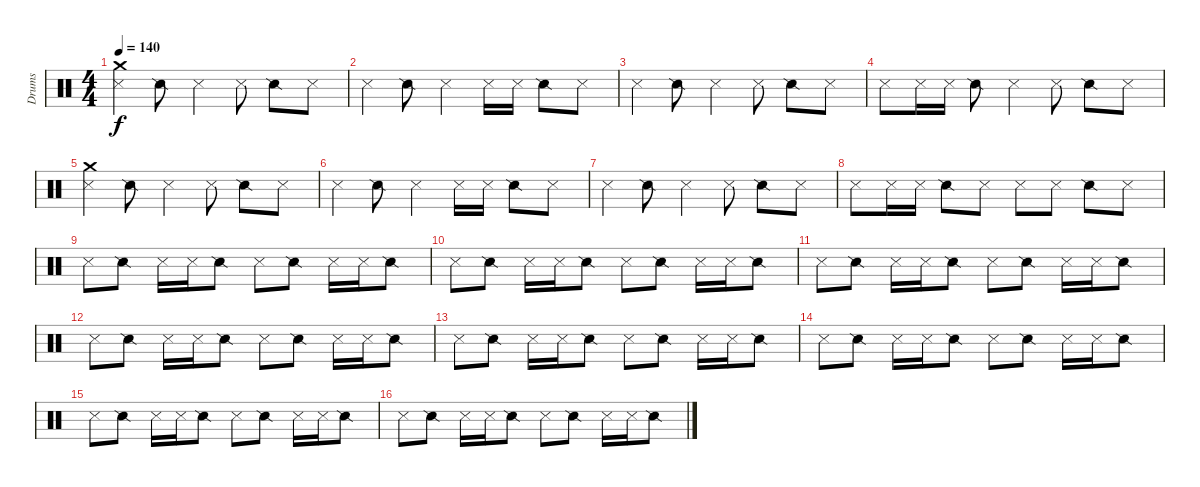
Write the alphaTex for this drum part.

\track ("Drums" "Drums") {instrument percussion}
\staff {score}
\articulation defaults
\ts (4 4)
\tempo 140
\clef neutral
\ks c
("Crash medium (hit)" "Metronome (hit)").4{dy f} "Snare (side stick) 2".8 "Metronome (hit)".4 "Metronome (hit)".8 "Snare (side stick) 2".8 "Metronome (hit)".8 |
"Metronome (hit)".4 "Snare (side stick) 2".8 "Metronome (hit)".4 "Metronome (hit)".16 "Metronome (hit)".16 "Snare (side stick) 2".8 "Metronome (hit)".8 |
"Metronome (hit)".4 "Snare (side stick) 2".8 "Metronome (hit)".4 "Metronome (hit)".8 "Snare (side stick) 2".8 "Metronome (hit)".8 |
"Metronome (hit)".8 "Metronome (hit)".16 "Metronome (hit)".16 "Snare (side stick) 2".8 "Metronome (hit)".4 "Metronome (hit)".8 "Snare (side stick) 2".8 "Metronome (hit)".8 |
("Crash medium (hit)" "Metronome (hit)").4 "Snare (side stick) 2".8 "Metronome (hit)".4 "Metronome (hit)".8 "Snare (side stick) 2".8 "Metronome (hit)".8 |
"Metronome (hit)".4 "Snare (side stick) 2".8 "Metronome (hit)".4 "Metronome (hit)".16 "Metronome (hit)".16 "Snare (side stick) 2".8 "Metronome (hit)".8 |
"Metronome (hit)".4 "Snare (side stick) 2".8 "Metronome (hit)".4 "Metronome (hit)".8 "Snare (side stick) 2".8 "Metronome (hit)".8 |
"Metronome (hit)".8 "Metronome (hit)".16 "Metronome (hit)".16 "Snare (side stick) 2".8 "Metronome (hit)".8 "Metronome (hit)".8 "Metronome (hit)".8 "Snare (side stick) 2".8 "Metronome (hit)".8 |
"Metronome (hit)".8 "Snare (side stick) 2".8 "Metronome (hit)".16 "Metronome (hit)".16 "Snare (side stick) 2".8 "Metronome (hit)".8 "Snare (side stick) 2".8 "Metronome (hit)".16 "Metronome (hit)".16 "Snare (side stick) 2".8 |
"Metronome (hit)".8 "Snare (side stick) 2".8 "Metronome (hit)".16 "Metronome (hit)".16 "Snare (side stick) 2".8 "Metronome (hit)".8 "Snare (side stick) 2".8 "Metronome (hit)".16 "Metronome (hit)".16 "Snare (side stick) 2".8 |
"Metronome (hit)".8 "Snare (side stick) 2".8 "Metronome (hit)".16 "Metronome (hit)".16 "Snare (side stick) 2".8 "Metronome (hit)".8 "Snare (side stick) 2".8 "Metronome (hit)".16 "Metronome (hit)".16 "Snare (side stick) 2".8 |
"Metronome (hit)".8 "Snare (side stick) 2".8 "Metronome (hit)".16 "Metronome (hit)".16 "Snare (side stick) 2".8 "Metronome (hit)".8 "Snare (side stick) 2".8 "Metronome (hit)".16 "Metronome (hit)".16 "Snare (side stick) 2".8 |
"Metronome (hit)".8 "Snare (side stick) 2".8 "Metronome (hit)".16 "Metronome (hit)".16 "Snare (side stick) 2".8 "Metronome (hit)".8 "Snare (side stick) 2".8 "Metronome (hit)".16 "Metronome (hit)".16 "Snare (side stick) 2".8 |
"Metronome (hit)".8 "Snare (side stick) 2".8 "Metronome (hit)".16 "Metronome (hit)".16 "Snare (side stick) 2".8 "Metronome (hit)".8 "Snare (side stick) 2".8 "Metronome (hit)".16 "Metronome (hit)".16 "Snare (side stick) 2".8 |
"Metronome (hit)".8 "Snare (side stick) 2".8 "Metronome (hit)".16 "Metronome (hit)".16 "Snare (side stick) 2".8 "Metronome (hit)".8 "Snare (side stick) 2".8 "Metronome (hit)".16 "Metronome (hit)".16 "Snare (side stick) 2".8 |
"Metronome (hit)".8 "Snare (side stick) 2".8 "Metronome (hit)".16 "Metronome (hit)".16 "Snare (side stick) 2".8 "Metronome (hit)".8 "Snare (side stick) 2".8 "Metronome (hit)".16 "Metronome (hit)".16 "Snare (side stick) 2".8
